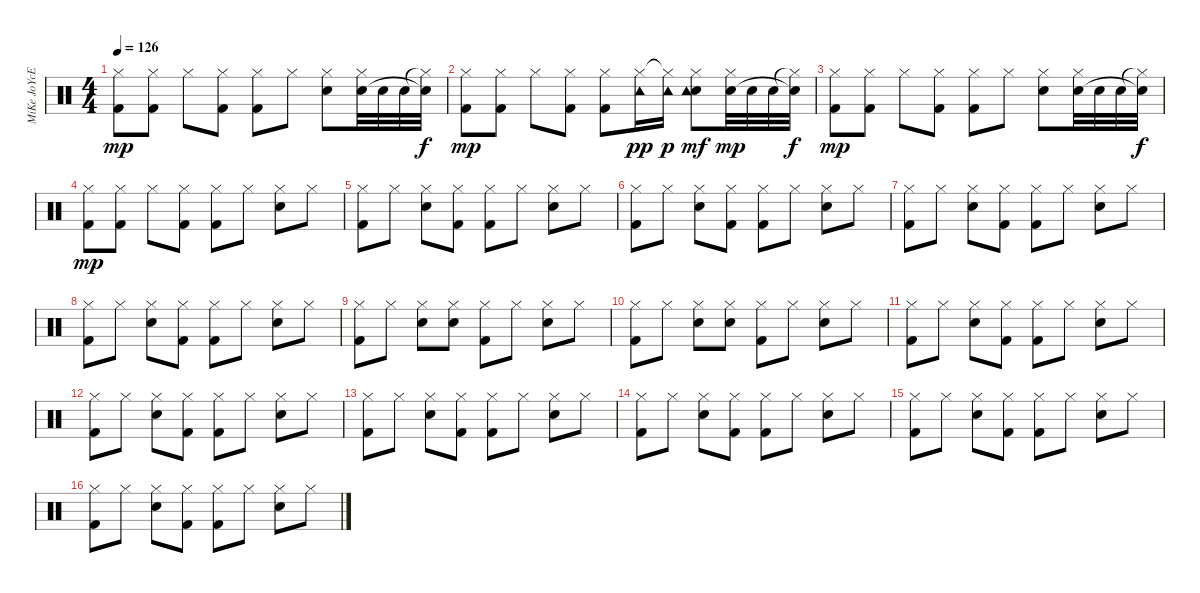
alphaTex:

\track ("MiKe JoYcE" "MiKe JoYcE") {instrument percussion}
\staff {score}
\articulation defaults
\ts (4 4)
\tempo 126
\clef neutral
\ks c
("Hi-Hat (closed)" "Kick (hit) 2").8{dy mp} ("Hi-Hat (closed)" "Kick (hit) 2").8 "Hi-Hat (closed)".8 ("Hi-Hat (closed)" "Kick (hit) 2").8 ("Hi-Hat (closed)" "Kick (hit) 2").8 "Hi-Hat (closed)".8 ("Hi-Hat (closed)" "Electric Snare (hit)").8 ("Hi-Hat (closed)" "Electric Snare (hit)").32 "Electric Snare (hit)".32 "Electric Snare (hit)".32 ("Hi-Hat (closed)"{t} "Electric Snare (hit)"{t}).32{dy f} |
("Hi-Hat (closed)" "Kick (hit) 2").8{dy mp} ("Hi-Hat (closed)" "Kick (hit) 2").8 "Hi-Hat (closed)".8 ("Hi-Hat (closed)" "Kick (hit) 2").8 ("Hi-Hat (closed)" "Kick (hit) 2").8 ("Hi-Hat (closed)" "Tambourine (hit)").16{dy pp} ("Hi-Hat (closed)"{t} "Tambourine (hit)").16{dy p} ("Hi-Hat (closed)" "Electric Snare (hit)" "Tambourine (hit)").8{dy mf} ("Hi-Hat (closed)" "Electric Snare (hit)").32{dy mp} "Electric Snare (hit)".32 "Electric Snare (hit)".32 ("Hi-Hat (closed)"{t} "Electric Snare (hit)"{t}).32{dy f} |
("Hi-Hat (closed)" "Kick (hit) 2").8{dy mp} ("Hi-Hat (closed)" "Kick (hit) 2").8 "Hi-Hat (closed)".8 ("Hi-Hat (closed)" "Kick (hit) 2").8 ("Hi-Hat (closed)" "Kick (hit) 2").8 "Hi-Hat (closed)".8 ("Hi-Hat (closed)" "Electric Snare (hit)").8 ("Hi-Hat (closed)" "Electric Snare (hit)").32 "Electric Snare (hit)".32 "Electric Snare (hit)".32 ("Hi-Hat (closed)"{t} "Electric Snare (hit)"{t}).32{dy f} |
("Hi-Hat (closed)" "Kick (hit) 2").8{dy mp} ("Hi-Hat (closed)" "Kick (hit) 2").8 "Hi-Hat (closed)".8 ("Hi-Hat (closed)" "Kick (hit) 2").8 ("Hi-Hat (closed)" "Kick (hit) 2").8 "Hi-Hat (closed)".8 ("Hi-Hat (closed)" "Electric Snare (hit)").8 "Hi-Hat (closed)".8 |
("Hi-Hat (closed)" "Kick (hit) 2").8 "Hi-Hat (closed)".8 ("Hi-Hat (closed)" "Electric Snare (hit)").8 ("Hi-Hat (closed)" "Kick (hit) 2").8 ("Hi-Hat (closed)" "Kick (hit) 2").8 "Hi-Hat (closed)".8 ("Hi-Hat (closed)" "Electric Snare (hit)").8 "Hi-Hat (closed)".8 |
("Hi-Hat (closed)" "Kick (hit) 2").8 "Hi-Hat (closed)".8 ("Hi-Hat (closed)" "Electric Snare (hit)").8 ("Hi-Hat (closed)" "Kick (hit) 2").8 ("Hi-Hat (closed)" "Kick (hit) 2").8 "Hi-Hat (closed)".8 ("Hi-Hat (closed)" "Electric Snare (hit)").8 "Hi-Hat (closed)".8 |
("Hi-Hat (closed)" "Kick (hit) 2").8 "Hi-Hat (closed)".8 ("Hi-Hat (closed)" "Electric Snare (hit)").8 ("Hi-Hat (closed)" "Kick (hit) 2").8 ("Hi-Hat (closed)" "Kick (hit) 2").8 "Hi-Hat (closed)".8 ("Hi-Hat (closed)" "Electric Snare (hit)").8 "Hi-Hat (closed)".8 |
("Hi-Hat (closed)" "Kick (hit) 2").8 "Hi-Hat (closed)".8 ("Hi-Hat (closed)" "Electric Snare (hit)").8 ("Hi-Hat (closed)" "Kick (hit) 2").8 ("Hi-Hat (closed)" "Kick (hit) 2").8 "Hi-Hat (closed)".8 ("Hi-Hat (closed)" "Electric Snare (hit)").8 "Hi-Hat (closed)".8 |
("Hi-Hat (closed)" "Kick (hit) 2").8 "Hi-Hat (closed)".8 ("Hi-Hat (closed)" "Electric Snare (hit)").8 ("Hi-Hat (closed)" "Electric Snare (hit)").8 ("Hi-Hat (closed)" "Kick (hit) 2").8 "Hi-Hat (closed)".8 ("Hi-Hat (closed)" "Electric Snare (hit)").8 "Hi-Hat (closed)".8 |
("Hi-Hat (closed)" "Kick (hit) 2").8 "Hi-Hat (closed)".8 ("Hi-Hat (closed)" "Electric Snare (hit)").8 ("Hi-Hat (closed)" "Electric Snare (hit)").8 ("Hi-Hat (closed)" "Kick (hit) 2").8 "Hi-Hat (closed)".8 ("Hi-Hat (closed)" "Electric Snare (hit)").8 "Hi-Hat (closed)".8 |
("Hi-Hat (closed)" "Kick (hit) 2").8 "Hi-Hat (closed)".8 ("Hi-Hat (closed)" "Electric Snare (hit)").8 ("Hi-Hat (closed)" "Kick (hit) 2").8 ("Hi-Hat (closed)" "Kick (hit) 2").8 "Hi-Hat (closed)".8 ("Hi-Hat (closed)" "Electric Snare (hit)").8 "Hi-Hat (closed)".8 |
("Hi-Hat (closed)" "Kick (hit) 2").8 "Hi-Hat (closed)".8 ("Hi-Hat (closed)" "Electric Snare (hit)").8 ("Hi-Hat (closed)" "Kick (hit) 2").8 ("Hi-Hat (closed)" "Kick (hit) 2").8 "Hi-Hat (closed)".8 ("Hi-Hat (closed)" "Electric Snare (hit)").8 "Hi-Hat (closed)".8 |
("Hi-Hat (closed)" "Kick (hit) 2").8 "Hi-Hat (closed)".8 ("Hi-Hat (closed)" "Electric Snare (hit)").8 ("Hi-Hat (closed)" "Kick (hit) 2").8 ("Hi-Hat (closed)" "Kick (hit) 2").8 "Hi-Hat (closed)".8 ("Hi-Hat (closed)" "Electric Snare (hit)").8 "Hi-Hat (closed)".8 |
("Hi-Hat (closed)" "Kick (hit) 2").8 "Hi-Hat (closed)".8 ("Hi-Hat (closed)" "Electric Snare (hit)").8 ("Hi-Hat (closed)" "Kick (hit) 2").8 ("Hi-Hat (closed)" "Kick (hit) 2").8 "Hi-Hat (closed)".8 ("Hi-Hat (closed)" "Electric Snare (hit)").8 "Hi-Hat (closed)".8 |
("Hi-Hat (closed)" "Kick (hit) 2").8 "Hi-Hat (closed)".8 ("Hi-Hat (closed)" "Electric Snare (hit)").8 ("Hi-Hat (closed)" "Kick (hit) 2").8 ("Hi-Hat (closed)" "Kick (hit) 2").8 "Hi-Hat (closed)".8 ("Hi-Hat (closed)" "Electric Snare (hit)").8 "Hi-Hat (closed)".8 |
("Hi-Hat (closed)" "Kick (hit) 2").8 "Hi-Hat (closed)".8 ("Hi-Hat (closed)" "Electric Snare (hit)").8 ("Hi-Hat (closed)" "Kick (hit) 2").8 ("Hi-Hat (closed)" "Kick (hit) 2").8 "Hi-Hat (closed)".8 ("Hi-Hat (closed)" "Electric Snare (hit)").8 "Hi-Hat (closed)".8
